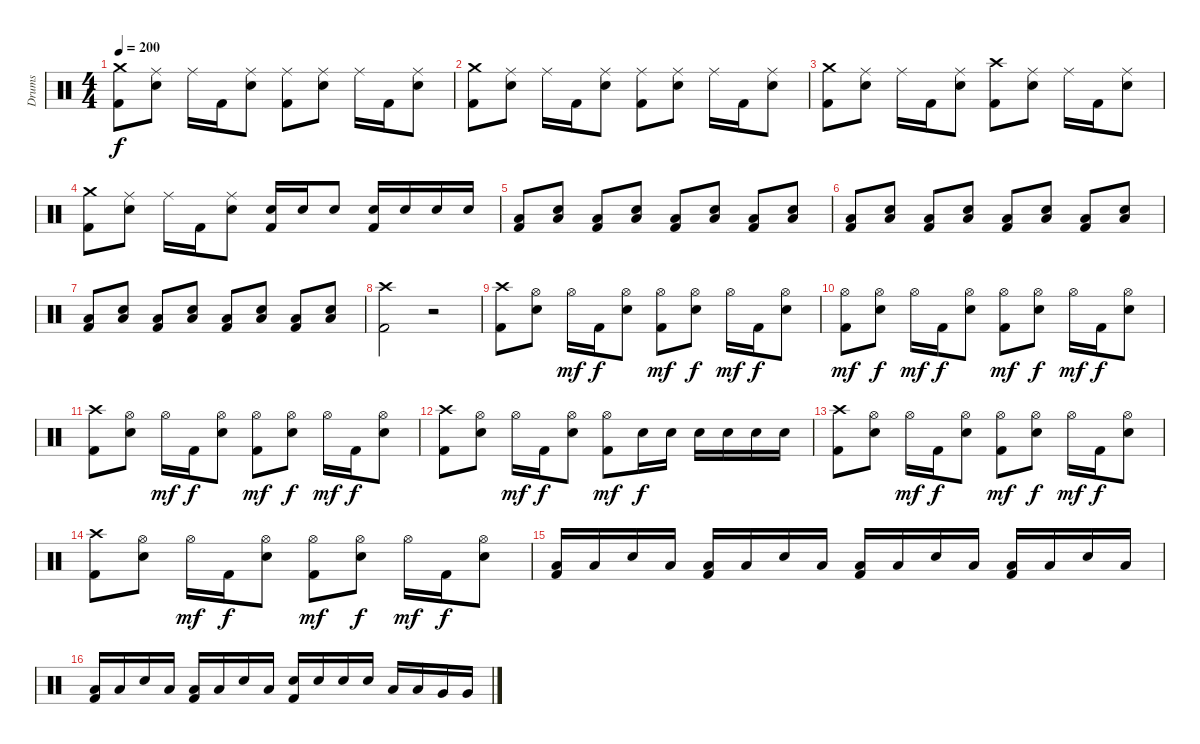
\track ("Drums" "Drums") {instrument percussion}
\staff {score}
\articulation defaults
\ts (4 4)
\tempo 200
\clef neutral
\ks c
("Crash medium (hit)" "Kick (hit) 2").8{dy f} ("Ride (middle)" "Electric Snare (hit)").8 "Ride (middle)".16 "Kick (hit) 2".16 ("Ride (middle)" "Electric Snare (hit)").8 ("Ride (middle)" "Kick (hit) 2").8 ("Ride (middle)" "Electric Snare (hit)").8 "Ride (middle)".16 "Kick (hit) 2".16 ("Ride (middle)" "Electric Snare (hit)").8 |
("Crash medium (hit)" "Kick (hit) 2").8 ("Ride (middle)" "Electric Snare (hit)").8 "Ride (middle)".16 "Kick (hit) 2".16 ("Ride (middle)" "Electric Snare (hit)").8 ("Ride (middle)" "Kick (hit) 2").8 ("Ride (middle)" "Electric Snare (hit)").8 "Ride (middle)".16 "Kick (hit) 2".16 ("Ride (middle)" "Electric Snare (hit)").8 |
("Crash medium (hit)" "Kick (hit) 2").8 ("Ride (middle)" "Electric Snare (hit)").8 "Ride (middle)".16 "Kick (hit) 2".16 ("Ride (middle)" "Electric Snare (hit)").8 ("Crash high (hit)" "Kick (hit) 2").8 ("Ride (middle)" "Electric Snare (hit)").8 "Ride (middle)".16 "Kick (hit) 2".16 ("Ride (middle)" "Electric Snare (hit)").8 |
("Crash medium (hit)" "Kick (hit) 2").8 ("Ride (middle)" "Electric Snare (hit)").8 "Ride (middle)".16 "Kick (hit) 2".16 ("Ride (middle)" "Electric Snare (hit)").8 ("Electric Snare (hit)" "Kick (hit) 2").16 "Electric Snare (hit)".16 "Electric Snare (hit)".8 ("Electric Snare (hit)" "Kick (hit) 2").16 "Electric Snare (hit)".16 "Electric Snare (hit)".16 "Electric Snare (hit)".16 |
("Low Tom (hit)" "Kick (hit) 2").8 ("Low Tom (hit)" "Electric Snare (hit)").8 ("Low Tom (hit)" "Kick (hit) 2").8 ("Low Tom (hit)" "Electric Snare (hit)").8 ("Low Tom (hit)" "Kick (hit) 2").8 ("Low Tom (hit)" "Electric Snare (hit)").8 ("Low Tom (hit)" "Kick (hit) 2").8 ("Low Tom (hit)" "Electric Snare (hit)").8 |
("Low Tom (hit)" "Kick (hit) 2").8 ("Low Tom (hit)" "Electric Snare (hit)").8 ("Low Tom (hit)" "Kick (hit) 2").8 ("Low Tom (hit)" "Electric Snare (hit)").8 ("Low Tom (hit)" "Kick (hit) 2").8 ("Low Tom (hit)" "Electric Snare (hit)").8 ("Low Tom (hit)" "Kick (hit) 2").8 ("Low Tom (hit)" "Electric Snare (hit)").8 |
("Low Tom (hit)" "Kick (hit) 2").8 ("Low Tom (hit)" "Electric Snare (hit)").8 ("Low Tom (hit)" "Kick (hit) 2").8 ("Low Tom (hit)" "Electric Snare (hit)").8 ("Low Tom (hit)" "Kick (hit) 2").8 ("Low Tom (hit)" "Electric Snare (hit)").8 ("Low Tom (hit)" "Kick (hit) 2").8 ("Low Tom (hit)" "Electric Snare (hit)").8 |
("Crash high (hit)" "Kick (hit) 2").2 r.2 |
("Crash high (hit)" "Kick (hit) 2").8 ("Hi-Hat (open)" "Electric Snare (hit)").8 "Hi-Hat (open)".16{dy mf} "Kick (hit) 2".16{dy f} ("Hi-Hat (open)" "Electric Snare (hit)").8 ("Hi-Hat (open)" "Kick (hit) 2").8{dy mf} ("Hi-Hat (open)" "Electric Snare (hit)").8{dy f} "Hi-Hat (open)".16{dy mf} "Kick (hit) 2".16{dy f} ("Hi-Hat (open)" "Electric Snare (hit)").8 |
("Hi-Hat (open)" "Kick (hit) 2").8{dy mf} ("Hi-Hat (open)" "Electric Snare (hit)").8{dy f} "Hi-Hat (open)".16{dy mf} "Kick (hit) 2".16{dy f} ("Hi-Hat (open)" "Electric Snare (hit)").8 ("Hi-Hat (open)" "Kick (hit) 2").8{dy mf} ("Hi-Hat (open)" "Electric Snare (hit)").8{dy f} "Hi-Hat (open)".16{dy mf} "Kick (hit) 2".16{dy f} ("Hi-Hat (open)" "Electric Snare (hit)").8 |
("Crash high (hit)" "Kick (hit) 2").8 ("Hi-Hat (open)" "Electric Snare (hit)").8 "Hi-Hat (open)".16{dy mf} "Kick (hit) 2".16{dy f} ("Hi-Hat (open)" "Electric Snare (hit)").8 ("Hi-Hat (open)" "Kick (hit) 2").8{dy mf} ("Hi-Hat (open)" "Electric Snare (hit)").8{dy f} "Hi-Hat (open)".16{dy mf} "Kick (hit) 2".16{dy f} ("Hi-Hat (open)" "Electric Snare (hit)").8 |
("Crash high (hit)" "Kick (hit) 2").8 ("Hi-Hat (open)" "Electric Snare (hit)").8 "Hi-Hat (open)".16{dy mf} "Kick (hit) 2".16{dy f} ("Hi-Hat (open)" "Electric Snare (hit)").8 ("Hi-Hat (open)" "Kick (hit) 2").8{dy mf} "Electric Snare (hit)".16{dy f} "Electric Snare (hit)".16 "Electric Snare (hit)".16 "Electric Snare (hit)".16 "Electric Snare (hit)".16 "Electric Snare (hit)".16 |
("Crash high (hit)" "Kick (hit) 2").8 ("Hi-Hat (open)" "Electric Snare (hit)").8 "Hi-Hat (open)".16{dy mf} "Kick (hit) 2".16{dy f} ("Hi-Hat (open)" "Electric Snare (hit)").8 ("Hi-Hat (open)" "Kick (hit) 2").8{dy mf} ("Hi-Hat (open)" "Electric Snare (hit)").8{dy f} "Hi-Hat (open)".16{dy mf} "Kick (hit) 2".16{dy f} ("Hi-Hat (open)" "Electric Snare (hit)").8 |
("Crash high (hit)" "Kick (hit) 2").8 ("Hi-Hat (open)" "Electric Snare (hit)").8 "Hi-Hat (open)".16{dy mf} "Kick (hit) 2".16{dy f} ("Hi-Hat (open)" "Electric Snare (hit)").8 ("Hi-Hat (open)" "Kick (hit) 2").8{dy mf} ("Hi-Hat (open)" "Electric Snare (hit)").8{dy f} "Hi-Hat (open)".16{dy mf} "Kick (hit) 2".16{dy f} ("Hi-Hat (open)" "Electric Snare (hit)").8 |
("Low Tom (hit)" "Kick (hit) 2").16 "Low Tom (hit)".16 "Electric Snare (hit)".16 "Low Tom (hit)".16 ("Low Tom (hit)" "Kick (hit) 2").16 "Low Tom (hit)".16 "Electric Snare (hit)".16 "Low Tom (hit)".16 ("Low Tom (hit)" "Kick (hit) 2").16 "Low Tom (hit)".16 "Electric Snare (hit)".16 "Low Tom (hit)".16 ("Low Tom (hit)" "Kick (hit) 2").16 "Low Tom (hit)".16 "Electric Snare (hit)".16 "Low Tom (hit)".16 |
("Low Tom (hit)" "Kick (hit) 2").16 "Low Tom (hit)".16 "Electric Snare (hit)".16 "Low Tom (hit)".16 ("Low Tom (hit)" "Kick (hit) 2").16 "Low Tom (hit)".16 "Electric Snare (hit)".16 "Low Tom (hit)".16 ("Electric Snare (hit)" "Kick (hit) 2").16 "Electric Snare (hit)".16 "Electric Snare (hit)".16 "Electric Snare (hit)".16 "Low Tom (hit)".16 "Low Tom (hit)".16 "Very Low Tom (hit)".16 "Very Low Tom (hit)".16
